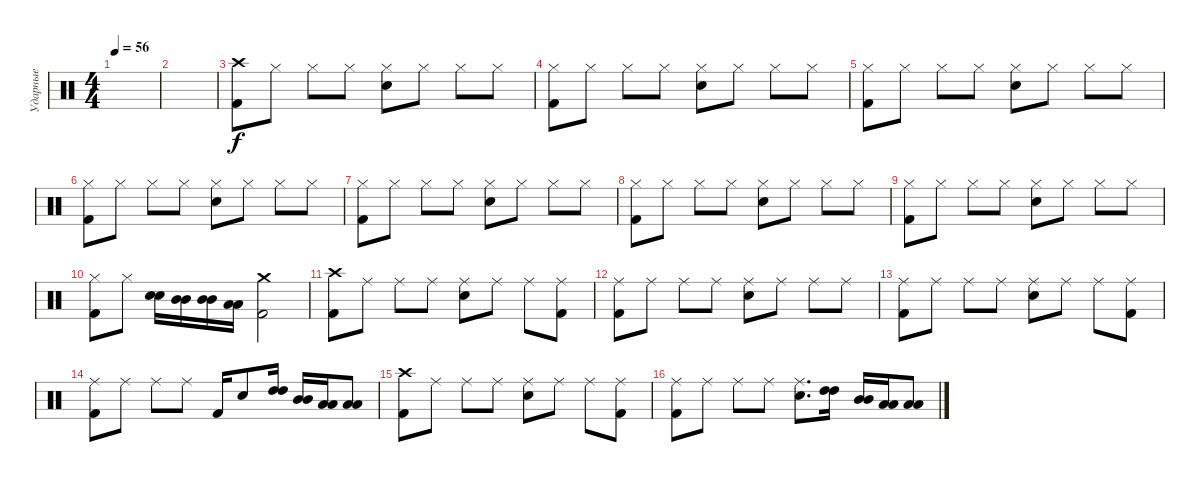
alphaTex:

\track ("Ударные" "Ударные") {instrument percussion}
\staff {score}
\articulation defaults
\ts (4 4)
\tempo 56
\clef neutral
\ks c
|
|
("Crash high (hit)" "Kick (hit) 2").8 "Hi-Hat (closed)".8 "Hi-Hat (closed)".8 "Hi-Hat (closed)".8 ("Hi-Hat (closed)" "Snare (hit) 2").8 "Hi-Hat (closed)".8 "Hi-Hat (closed)".8 "Hi-Hat (closed)".8 |
("Hi-Hat (closed)" "Kick (hit) 2").8 "Hi-Hat (closed)".8 "Hi-Hat (closed)".8 "Hi-Hat (closed)".8 ("Hi-Hat (closed)" "Snare (hit) 2").8 "Hi-Hat (closed)".8 "Hi-Hat (closed)".8 "Hi-Hat (closed)".8 |
("Hi-Hat (closed)" "Kick (hit) 2").8 "Hi-Hat (closed)".8 "Hi-Hat (closed)".8 "Hi-Hat (closed)".8 ("Hi-Hat (closed)" "Snare (hit) 2").8 "Hi-Hat (closed)".8 "Hi-Hat (closed)".8 "Hi-Hat (closed)".8 |
("Hi-Hat (closed)" "Kick (hit) 2").8 "Hi-Hat (closed)".8 "Hi-Hat (closed)".8 "Hi-Hat (closed)".8 ("Hi-Hat (closed)" "Snare (hit) 2").8 "Hi-Hat (closed)".8 "Hi-Hat (closed)".8 "Hi-Hat (closed)".8 |
("Hi-Hat (closed)" "Kick (hit) 2").8 "Hi-Hat (closed)".8 "Hi-Hat (closed)".8 "Hi-Hat (closed)".8 ("Hi-Hat (closed)" "Snare (hit) 2").8 "Hi-Hat (closed)".8 "Hi-Hat (closed)".8 "Hi-Hat (closed)".8 |
("Hi-Hat (closed)" "Kick (hit) 2").8 "Hi-Hat (closed)".8 "Hi-Hat (closed)".8 "Hi-Hat (closed)".8 ("Hi-Hat (closed)" "Snare (hit) 2").8 "Hi-Hat (closed)".8 "Hi-Hat (closed)".8 "Hi-Hat (closed)".8 |
("Hi-Hat (closed)" "Kick (hit) 2").8 "Hi-Hat (closed)".8 "Hi-Hat (closed)".8 "Hi-Hat (closed)".8 ("Hi-Hat (closed)" "Snare (hit) 2").8 "Hi-Hat (closed)".8 "Hi-Hat (closed)".8 "Hi-Hat (closed)".8 |
("Hi-Hat (closed)" "Kick (hit) 2").8 "Hi-Hat (closed)".8 ("Snare (hit) 2" "Snare (hit) 2").16 ("Mid Tom (hit)" "Mid Tom (hit)").16 ("Mid Tom (hit)" "Mid Tom (hit)").16 ("Low Tom (hit)" "Low Tom (hit)").16 ("Crash medium (hit)" "Kick (hit) 2").2 |
("Crash high (hit)" "Kick (hit) 2").8 "Ride (middle)".8 "Ride (middle)".8 "Ride (middle)".8 ("Ride (middle)" "Snare (hit) 2").8 "Ride (middle)".8 "Ride (middle)".8 ("Ride (middle)" "Kick (hit) 2").8 |
("Ride (middle)" "Kick (hit) 2").8 "Ride (middle)".8 "Ride (middle)".8 "Ride (middle)".8 ("Ride (middle)" "Snare (hit) 2").8 "Ride (middle)".8 "Ride (middle)".8 "Ride (middle)".8 |
("Ride (middle)" "Kick (hit) 2").8 "Ride (middle)".8 "Ride (middle)".8 "Ride (middle)".8 ("Ride (middle)" "Snare (hit) 2").8 "Ride (middle)".8 "Ride (middle)".8 ("Ride (middle)" "Kick (hit) 2").8 |
("Ride (middle)" "Kick (hit) 2").8 "Ride (middle)".8 "Ride (middle)".8 "Ride (middle)".8 "Kick (hit) 2".16 "Snare (hit) 2".8 ("High Tom (hit)" "High Tom (hit)").16 ("Mid Tom (hit)" "Mid Tom (hit)").16 ("Low Tom (hit)" "Low Tom (hit)").16 ("Low Tom (hit)" "Low Tom (hit)").8 |
("Crash high (hit)" "Kick (hit) 2").8 "Ride (middle)".8 "Ride (middle)".8 "Ride (middle)".8 ("Ride (middle)" "Snare (hit) 2").8 "Ride (middle)".8 "Ride (middle)".8 ("Ride (middle)" "Kick (hit) 2").8 |
("Ride (middle)" "Kick (hit) 2").8 "Ride (middle)".8 "Ride (middle)".8 "Ride (middle)".8 ("Ride (middle)" "Snare (hit) 2").8{d} ("High Tom (hit)" "High Tom (hit)").16 ("Mid Tom (hit)" "Mid Tom (hit)").16 ("Low Tom (hit)" "Low Tom (hit)").16 ("Low Tom (hit)" "Low Tom (hit)").8
